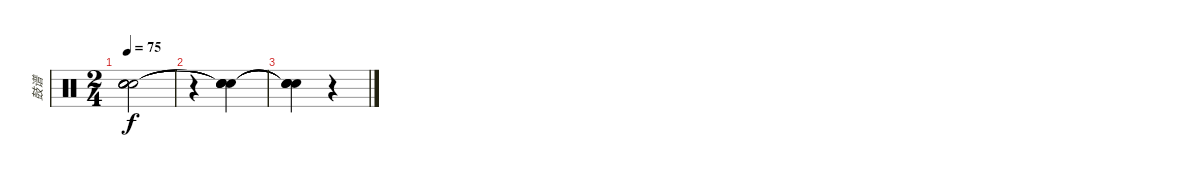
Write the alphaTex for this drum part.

\track ("鼓谱" "鼓谱") {instrument percussion}
\staff {score}
\articulation defaults
\ts (2 4)
\tempo 75
\clef neutral
\ks c
("Snare (hit)"{t} "Snare (hit)"{t} "Snare (hit)"{t} "Snare (hit)"{t}).2{dy f} |
r.4 ("Snare (hit)"{t} "Snare (hit)"{t} "Snare (hit)"{t} "Snare (hit)"{t}).4 |
("Snare (hit)"{t} "Snare (hit)"{t} "Snare (hit)"{t} "Snare (hit)"{t}).4 r.4
